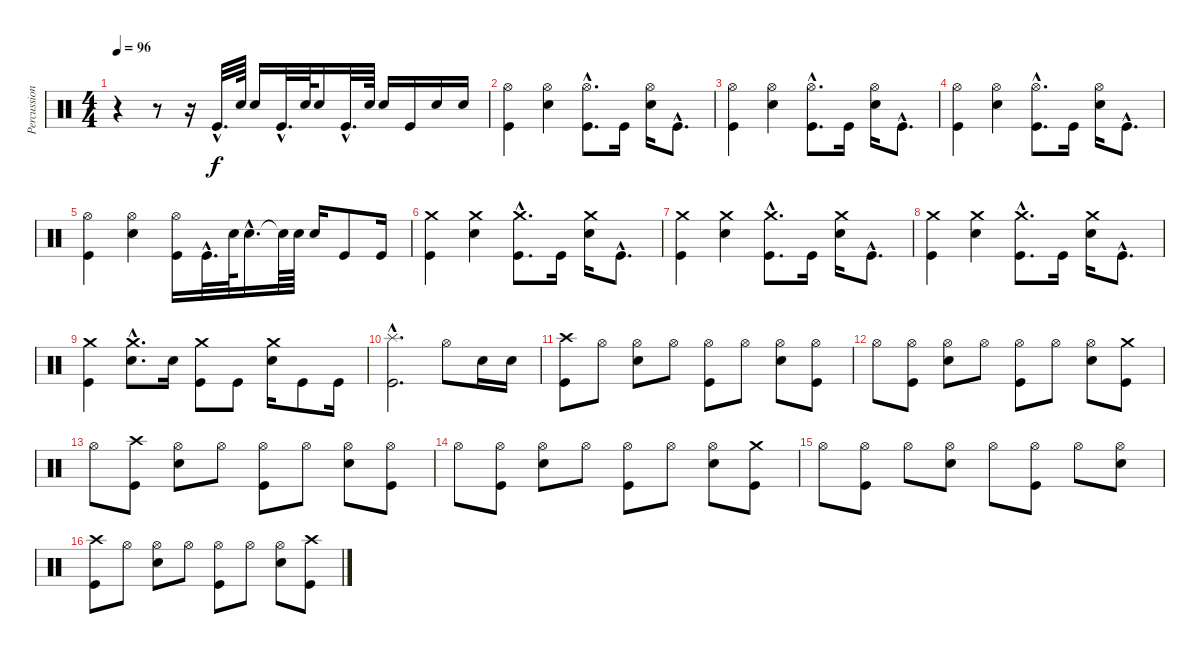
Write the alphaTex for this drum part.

\track ("Percussion" "Percussion") {instrument percussion}
\staff {score}
\articulation defaults
\ts (4 4)
\tempo 96
\clef neutral
\ks c
r.4{dy f} r.8 r.16 "Kick (hit)"{hac}.32{d} "Electric Snare (hit)".64 "Electric Snare (hit)".16 "Kick (hit)"{hac}.32{d} "Electric Snare (hit)".64 "Electric Snare (hit)".16 "Kick (hit)"{hac}.32{d} "Electric Snare (hit)".64 "Electric Snare (hit)".16 "Kick (hit)".16 "Electric Snare (hit)".16 "Electric Snare (hit)".16 |
("Kick (hit)" "Hi-Hat (open)").4 ("Electric Snare (hit)" "Hi-Hat (open)").4 ("Hi-Hat (open)"{hac} "Kick (hit)"{hac}).8{d} "Kick (hit)".16 ("Electric Snare (hit)" "Hi-Hat (open)").16 "Kick (hit)"{hac}.8{d} |
("Kick (hit)" "Hi-Hat (open)").4 ("Hi-Hat (open)" "Electric Snare (hit)").4 ("Hi-Hat (open)"{hac} "Kick (hit)"{hac}).8{d} "Kick (hit)".16 ("Hi-Hat (open)" "Electric Snare (hit)").16 "Kick (hit)"{hac}.8{d} |
("Kick (hit)" "Hi-Hat (open)").4 ("Electric Snare (hit)" "Hi-Hat (open)").4 ("Hi-Hat (open)"{hac} "Kick (hit)"{hac}).8{d} "Kick (hit)".16 ("Electric Snare (hit)" "Hi-Hat (open)").16 "Kick (hit)"{hac}.8{d} |
("Kick (hit)" "Hi-Hat (open)").4 ("Electric Snare (hit)" "Hi-Hat (open)").4 ("Kick (hit)" "Hi-Hat (open)").16 "Kick (hit)"{hac}.32{d} "Electric Snare (hit)".64 "Electric Snare (hit)"{hac}.16{d} "Snare (hit)"{t}.64 "Electric Snare (hit)".64 "Electric Snare (hit)".16 "Kick (hit)".8 "Kick (hit)".16 |
("Crash medium (hit)" "Kick (hit)").4 ("Crash medium (hit)" "Electric Snare (hit)").4 ("Crash medium (hit)"{hac} "Kick (hit)"{hac}).8{d} "Kick (hit)".16 ("Crash medium (hit)" "Electric Snare (hit)").16 "Kick (hit)"{hac}.8{d} |
("Crash medium (hit)" "Kick (hit)").4 ("Crash medium (hit)" "Electric Snare (hit)").4 ("Crash medium (hit)"{hac} "Kick (hit)"{hac}).8{d} "Kick (hit)".16 ("Crash medium (hit)" "Electric Snare (hit)").16 "Kick (hit)"{hac}.8{d} |
("Crash medium (hit)" "Kick (hit)").4 ("Crash medium (hit)" "Electric Snare (hit)").4 ("Crash medium (hit)"{hac} "Kick (hit)"{hac}).8{d} "Kick (hit)".16 ("Crash medium (hit)" "Electric Snare (hit)").16 "Kick (hit)"{hac}.8{d} |
("Kick (hit)" "Crash medium (hit)").4 ("Electric Snare (hit)"{hac} "Crash medium (hit)"{hac}).8{d} "Electric Snare (hit)".16 ("Kick (hit)" "Crash medium (hit)").8 "Kick (hit)".8 ("Electric Snare (hit)" "Crash medium (hit)").16 "Kick (hit)".8 "Kick (hit)".16 |
("Splash (hit)"{hac} "Kick (hit)"{hac}).2{d} "Hi-Hat (open)".8 "Electric Snare (hit)".16 "Electric Snare (hit)".16 |
("Kick (hit)" "Crash high (hit)").8 "Hi-Hat (open)".8 ("Electric Snare (hit)" "Hi-Hat (open)").8 "Hi-Hat (open)".8 ("Kick (hit)" "Hi-Hat (open)").8 "Hi-Hat (open)".8 ("Electric Snare (hit)" "Hi-Hat (open)").8 ("Kick (hit)" "Hi-Hat (open)").8 |
"Hi-Hat (open)".8 ("Kick (hit)" "Hi-Hat (open)").8 ("Electric Snare (hit)" "Hi-Hat (open)").8 "Hi-Hat (open)".8 ("Kick (hit)" "Hi-Hat (open)").8 "Hi-Hat (open)".8 ("Electric Snare (hit)" "Hi-Hat (open)").8 ("Crash medium (hit)" "Kick (hit)").8 |
"Hi-Hat (open)".8 ("Kick (hit)" "Crash high (hit)").8 ("Electric Snare (hit)" "Hi-Hat (open)").8 "Hi-Hat (open)".8 ("Kick (hit)" "Hi-Hat (open)").8 "Hi-Hat (open)".8 ("Electric Snare (hit)" "Hi-Hat (open)").8 ("Kick (hit)" "Hi-Hat (open)").8 |
"Hi-Hat (open)".8 ("Kick (hit)" "Hi-Hat (open)").8 ("Electric Snare (hit)" "Hi-Hat (open)").8 "Hi-Hat (open)".8 ("Kick (hit)" "Hi-Hat (open)").8 "Hi-Hat (open)".8 ("Electric Snare (hit)" "Hi-Hat (open)").8 ("Kick (hit)" "Crash medium (hit)").8 |
"Hi-Hat (open)".8 ("Kick (hit)" "Hi-Hat (open)").8 "Hi-Hat (open)".8 ("Electric Snare (hit)" "Hi-Hat (open)").8 "Hi-Hat (open)".8 ("Kick (hit)" "Hi-Hat (open)").8 "Hi-Hat (open)".8 ("Electric Snare (hit)" "Hi-Hat (open)").8 |
("Kick (hit)" "Crash high (hit)").8 "Hi-Hat (open)".8 ("Electric Snare (hit)" "Hi-Hat (open)").8 "Hi-Hat (open)".8 ("Kick (hit)" "Hi-Hat (open)").8 "Hi-Hat (open)".8 ("Electric Snare (hit)" "Hi-Hat (open)").8 ("Kick (hit)" "Crash high (hit)").8
